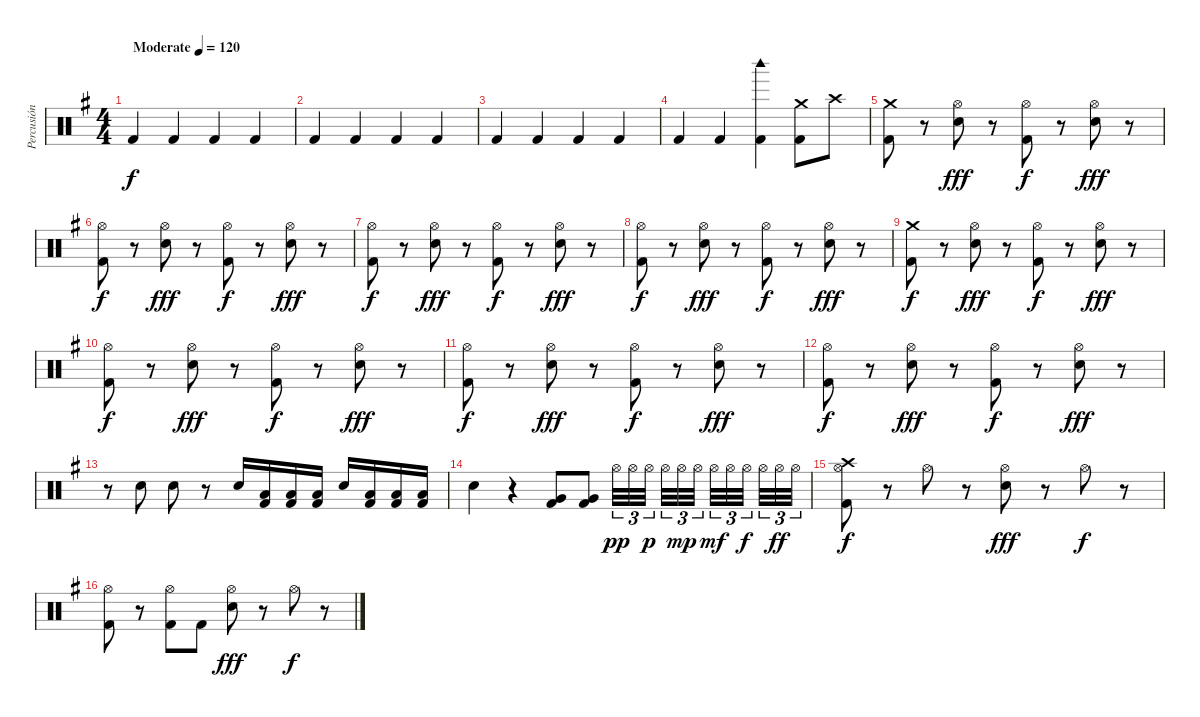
\track ("Percusión" "Percusión") {instrument percussion}
\staff {score}
\articulation defaults
\ts (4 4)
\tempo (120 "Moderate")
\clef neutral
\ks g "Kick (hit) 2".4{dy f} "Kick (hit) 2".4 "Kick (hit) 2".4 "Kick (hit) 2".4
|
"Kick (hit) 2".4 "Kick (hit) 2".4 "Kick (hit) 2".4 "Kick (hit) 2".4 |
"Kick (hit) 2".4 "Kick (hit) 2".4 "Kick (hit) 2".4 "Kick (hit) 2".4 |
"Kick (hit) 2".4 "Kick (hit) 2".4 ("Woodblock high (hit)" "Kick (hit) 2").4 ("Crash medium (hit)" "Kick (hit) 2").8 "Crash high (hit)".8 |
("Crash medium (hit)" "Kick (hit) 2").8 r.8 ("Hi-Hat (open)" "Electric Snare (hit)").8{dy fff} r.8 ("Hi-Hat (open)" "Kick (hit) 2").8{dy f} r.8 ("Hi-Hat (open)" "Electric Snare (hit)").8{dy fff} r.8 |
("Hi-Hat (open)" "Kick (hit) 2").8{dy f} r.8 ("Hi-Hat (open)" "Electric Snare (hit)").8{dy fff} r.8 ("Hi-Hat (open)" "Kick (hit) 2").8{dy f} r.8 ("Hi-Hat (open)" "Electric Snare (hit)").8{dy fff} r.8 |
("Hi-Hat (open)" "Kick (hit) 2").8{dy f} r.8 ("Hi-Hat (open)" "Electric Snare (hit)").8{dy fff} r.8 ("Hi-Hat (open)" "Kick (hit) 2").8{dy f} r.8 ("Hi-Hat (open)" "Electric Snare (hit)").8{dy fff} r.8 |
("Hi-Hat (open)" "Kick (hit) 2").8{dy f} r.8 ("Hi-Hat (open)" "Electric Snare (hit)").8{dy fff} r.8 ("Hi-Hat (open)" "Kick (hit) 2").8{dy f} r.8 ("Hi-Hat (open)" "Electric Snare (hit)").8{dy fff} r.8 |
("Crash medium (hit)" "Kick (hit) 2").8{dy f} r.8 ("Hi-Hat (open)" "Electric Snare (hit)").8{dy fff} r.8 ("Hi-Hat (open)" "Kick (hit) 2").8{dy f} r.8 ("Hi-Hat (open)" "Electric Snare (hit)").8{dy fff} r.8 |
("Hi-Hat (open)" "Kick (hit) 2").8{dy f} r.8 ("Hi-Hat (open)" "Electric Snare (hit)").8{dy fff} r.8 ("Hi-Hat (open)" "Kick (hit) 2").8{dy f} r.8 ("Hi-Hat (open)" "Electric Snare (hit)").8{dy fff} r.8 |
("Hi-Hat (open)" "Kick (hit) 2").8{dy f} r.8 ("Hi-Hat (open)" "Electric Snare (hit)").8{dy fff} r.8 ("Hi-Hat (open)" "Kick (hit) 2").8{dy f} r.8 ("Hi-Hat (open)" "Electric Snare (hit)").8{dy fff} r.8 |
("Hi-Hat (open)" "Kick (hit) 2").8{dy f} r.8 ("Hi-Hat (open)" "Electric Snare (hit)").8{dy fff} r.8 ("Hi-Hat (open)" "Kick (hit) 2").8{dy f} r.8 ("Hi-Hat (open)" "Electric Snare (hit)").8{dy fff} r.8 |
r.8 "Electric Snare (hit)".8 "Electric Snare (hit)".8 r.8 "Electric Snare (hit)".16 ("Low Floor Tom (hit)" "Kick (hit) 2").16 ("Low Floor Tom (hit)" "Kick (hit) 2").16 ("Low Floor Tom (hit)" "Kick (hit) 2").16 "Electric Snare (hit)".16 ("Low Floor Tom (hit)" "Kick (hit) 2").16 ("Low Floor Tom (hit)" "Kick (hit) 2").16 ("Low Floor Tom (hit)" "Kick (hit) 2").16 |
"Electric Snare (hit)".4 r.4 ("Very Low Tom (hit)" "Kick (hit) 2").8 ("Very Low Tom (hit)" "Kick (hit) 2").8 "Hi-Hat (open)".32{tu (3 2) dy pp} "Hi-Hat (open)".32{tu (3 2)} "Hi-Hat (open)".32{tu (3 2) dy p beam splitsecondary} "Hi-Hat (open)".32{tu (3 2)} "Hi-Hat (open)".32{tu (3 2) dy mp} "Hi-Hat (open)".32{tu (3 2) beam splitsecondary} "Hi-Hat (open)".32{tu (3 2) dy mf} "Hi-Hat (open)".32{tu (3 2)} "Hi-Hat (open)".32{tu (3 2) dy f beam splitsecondary} "Hi-Hat (open)".32{tu (3 2)} "Hi-Hat (open)".32{tu (3 2) dy ff} "Hi-Hat (open)".32{tu (3 2)} |
("Crash high (hit)" "Hi-Hat (open)" "Kick (hit) 2").8{dy f} r.8 "Hi-Hat (open)".8 r.8 ("Hi-Hat (open)" "Electric Snare (hit)").8{dy fff} r.8 "Hi-Hat (open)".8{dy f} r.8 |
("Hi-Hat (open)" "Kick (hit) 2").8 r.8 ("Hi-Hat (open)" "Kick (hit) 2").8 "Kick (hit) 2".8 ("Hi-Hat (open)" "Electric Snare (hit)").8{dy fff} r.8 "Hi-Hat (open)".8{dy f} r.8
